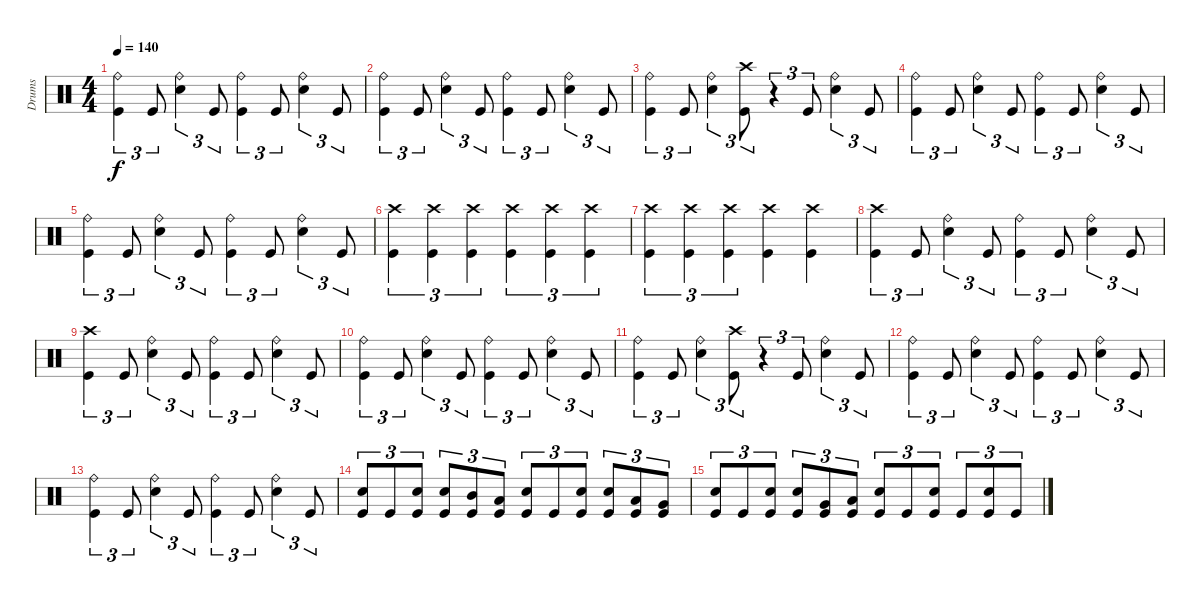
\track ("Drums" "Drums") {instrument percussion}
\staff {score}
\articulation defaults
\ts (4 4)
\tempo 140
\clef neutral
\ks c
("Ride (bell)" "Kick (hit)").4{tu (3 2) dy f} "Kick (hit)".8{tu (3 2)} ("Ride (bell)" "Snare (hit) 2").4{tu (3 2)} "Kick (hit)".8{tu (3 2)} ("Ride (bell)" "Kick (hit)").4{tu (3 2)} "Kick (hit)".8{tu (3 2)} ("Ride (bell)" "Snare (hit) 2").4{tu (3 2)} "Kick (hit)".8{tu (3 2)} |
("Ride (bell)" "Kick (hit)").4{tu (3 2)} "Kick (hit)".8{tu (3 2)} ("Ride (bell)" "Snare (hit) 2").4{tu (3 2)} "Kick (hit)".8{tu (3 2)} ("Ride (bell)" "Kick (hit)").4{tu (3 2)} "Kick (hit)".8{tu (3 2)} ("Ride (bell)" "Snare (hit) 2").4{tu (3 2)} "Kick (hit)".8{tu (3 2)} |
("Ride (bell)" "Kick (hit)").4{tu (3 2)} "Kick (hit)".8{tu (3 2)} ("Ride (bell)" "Snare (hit) 2").4{tu (3 2)} ("Crash high (hit)" "Kick (hit)").8{tu (3 2)} r.4{tu (3 2)} "Kick (hit)".8{tu (3 2)} ("Ride (bell)" "Snare (hit) 2").4{tu (3 2)} "Kick (hit)".8{tu (3 2)} |
("Ride (bell)" "Kick (hit)").4{tu (3 2)} "Kick (hit)".8{tu (3 2)} ("Ride (bell)" "Snare (hit) 2").4{tu (3 2)} "Kick (hit)".8{tu (3 2)} ("Ride (bell)" "Kick (hit)").4{tu (3 2)} "Kick (hit)".8{tu (3 2)} ("Ride (bell)" "Snare (hit) 2").4{tu (3 2)} "Kick (hit)".8{tu (3 2)} |
("Ride (bell)" "Kick (hit)").4{tu (3 2)} "Kick (hit)".8{tu (3 2)} ("Ride (bell)" "Snare (hit) 2").4{tu (3 2)} "Kick (hit)".8{tu (3 2)} ("Ride (bell)" "Kick (hit)").4{tu (3 2)} "Kick (hit)".8{tu (3 2)} ("Ride (bell)" "Snare (hit) 2").4{tu (3 2)} "Kick (hit)".8{tu (3 2)} |
("Crash high (hit)" "Kick (hit)").4{tu (3 2)} ("Crash high (hit)" "Kick (hit)").4{tu (3 2)} ("Crash high (hit)" "Kick (hit)").4{tu (3 2)} ("Crash high (hit)" "Kick (hit)").4{tu (3 2)} ("Crash high (hit)" "Kick (hit)").4{tu (3 2)} ("Crash high (hit)" "Kick (hit)").4{tu (3 2)} |
("Crash high (hit)" "Kick (hit)").4{tu (3 2)} ("Crash high (hit)" "Kick (hit)").4{tu (3 2)} ("Crash high (hit)" "Kick (hit)").4{tu (3 2)} ("Crash high (hit)" "Kick (hit)").4 ("Crash high (hit)" "Kick (hit)").4 |
("Crash high (hit)" "Kick (hit)").4{tu (3 2)} "Kick (hit)".8{tu (3 2)} ("Ride (bell)" "Snare (hit) 2").4{tu (3 2)} "Kick (hit)".8{tu (3 2)} ("Ride (bell)" "Kick (hit)").4{tu (3 2)} "Kick (hit)".8{tu (3 2)} ("Ride (bell)" "Snare (hit) 2").4{tu (3 2)} "Kick (hit)".8{tu (3 2)} |
("Crash high (hit)" "Kick (hit)").4{tu (3 2)} "Kick (hit)".8{tu (3 2)} ("Ride (bell)" "Snare (hit) 2").4{tu (3 2)} "Kick (hit)".8{tu (3 2)} ("Ride (bell)" "Kick (hit)").4{tu (3 2)} "Kick (hit)".8{tu (3 2)} ("Ride (bell)" "Snare (hit) 2").4{tu (3 2)} "Kick (hit)".8{tu (3 2)} |
("Ride (bell)" "Kick (hit)").4{tu (3 2)} "Kick (hit)".8{tu (3 2)} ("Ride (bell)" "Snare (hit) 2").4{tu (3 2)} "Kick (hit)".8{tu (3 2)} ("Ride (bell)" "Kick (hit)").4{tu (3 2)} "Kick (hit)".8{tu (3 2)} ("Ride (bell)" "Snare (hit) 2").4{tu (3 2)} "Kick (hit)".8{tu (3 2)} |
("Ride (bell)" "Kick (hit)").4{tu (3 2)} "Kick (hit)".8{tu (3 2)} ("Ride (bell)" "Snare (hit) 2").4{tu (3 2)} ("Crash high (hit)" "Kick (hit)").8{tu (3 2)} r.4{tu (3 2)} "Kick (hit)".8{tu (3 2)} ("Ride (bell)" "Snare (hit) 2").4{tu (3 2)} "Kick (hit)".8{tu (3 2)} |
("Ride (bell)" "Kick (hit)").4{tu (3 2)} "Kick (hit)".8{tu (3 2)} ("Ride (bell)" "Snare (hit) 2").4{tu (3 2)} "Kick (hit)".8{tu (3 2)} ("Ride (bell)" "Kick (hit)").4{tu (3 2)} "Kick (hit)".8{tu (3 2)} ("Ride (bell)" "Snare (hit) 2").4{tu (3 2)} "Kick (hit)".8{tu (3 2)} |
("Ride (bell)" "Kick (hit)").4{tu (3 2)} "Kick (hit)".8{tu (3 2)} ("Ride (bell)" "Snare (hit) 2").4{tu (3 2)} "Kick (hit)".8{tu (3 2)} ("Ride (bell)" "Kick (hit)").4{tu (3 2)} "Kick (hit)".8{tu (3 2)} ("Ride (bell)" "Snare (hit) 2").4{tu (3 2)} "Kick (hit)".8{tu (3 2)} |
("Snare (hit) 2" "Kick (hit)").8{tu (3 2)} "Kick (hit)".8{tu (3 2)} ("Snare (hit) 2" "Kick (hit)").8{tu (3 2)} ("Snare (hit) 2" "Kick (hit)").8{tu (3 2)} ("Mid Tom (hit)" "Kick (hit)").8{tu (3 2)} ("Low Tom (hit)" "Kick (hit)").8{tu (3 2)} ("Snare (hit) 2" "Kick (hit)").8{tu (3 2)} "Kick (hit)".8{tu (3 2)} ("Snare (hit) 2" "Kick (hit)").8{tu (3 2)} ("Snare (hit) 2" "Kick (hit)").8{tu (3 2)} ("Low Tom (hit)" "Kick (hit)").8{tu (3 2)} ("Very Low Tom (hit)" "Kick (hit)").8{tu (3 2)} |
("Snare (hit) 2" "Kick (hit)").8{tu (3 2)} "Kick (hit)".8{tu (3 2)} ("Snare (hit) 2" "Kick (hit)").8{tu (3 2)} ("Snare (hit) 2" "Kick (hit)").8{tu (3 2)} ("Very Low Tom (hit)" "Kick (hit)").8{tu (3 2)} ("Low Floor Tom (hit)" "Kick (hit)").8{tu (3 2)} ("Snare (hit) 2" "Kick (hit)").8{tu (3 2)} "Kick (hit)".8{tu (3 2)} ("Snare (hit) 2" "Kick (hit)").8{tu (3 2)} "Kick (hit)".8{tu (3 2)} ("Snare (hit) 2" "Kick (hit)").8{tu (3 2)} "Kick (hit)".8{tu (3 2)}
